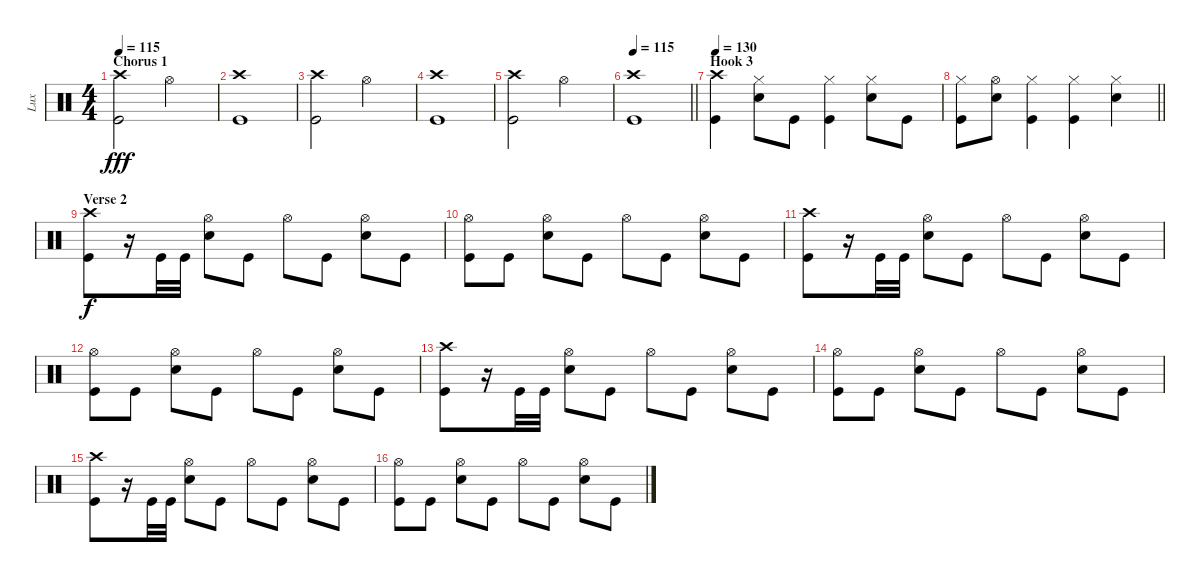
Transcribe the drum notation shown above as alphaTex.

\track ("Lux" "Lux") {instrument percussion}
\staff {score}
\articulation defaults
\ts (4 4)
\section ("" "Chorus 1")
\tempo 115
\clef neutral
\ks c
("Crash high (hit)" "Kick (hit)").2{dy fff} "Hi-Hat (open)".2 |
("Crash high (hit)" "Kick (hit)").1 |
("Crash high (hit)" "Kick (hit)").2 "Hi-Hat (open)".2 |
("Crash high (hit)" "Kick (hit)").1 |
("Crash high (hit)" "Kick (hit)").2 "Hi-Hat (open)".2 |
\tempo 130
\tempo 115
\barLineRight lightlight
("Crash high (hit)" "Kick (hit)").1 |
\section ("" "Hook 3")
\tempo 130
("Crash high (hit)" "Kick (hit)").4 ("Hi-Hat (closed)" "Snare (hit) 2").8 "Kick (hit)".8 ("Hi-Hat (closed)" "Kick (hit)").4 ("Hi-Hat (closed)" "Snare (hit) 2").8 "Kick (hit)".8 |
\barLineRight lightlight
("Hi-Hat (closed)" "Kick (hit)").8 ("Hi-Hat (open)" "Snare (hit) 2").8 ("Hi-Hat (closed)" "Kick (hit)").4 ("Hi-Hat (closed)" "Kick (hit)").4 ("Hi-Hat (closed)" "Snare (hit) 2").4 |
\section ("" "Verse 2")
("Crash high (hit)" "Kick (hit)").8{dy f} r.16 "Kick (hit)".32 "Kick (hit)".32 ("Hi-Hat (open)" "Snare (hit) 2").8 "Kick (hit)".8 "Hi-Hat (open)".8 "Kick (hit)".8 ("Hi-Hat (open)" "Snare (hit) 2").8 "Kick (hit)".8 |
("Hi-Hat (open)" "Kick (hit)").8 "Kick (hit)".8 ("Hi-Hat (open)" "Snare (hit) 2").8 "Kick (hit)".8 "Hi-Hat (open)".8 "Kick (hit)".8 ("Hi-Hat (open)" "Snare (hit) 2").8 "Kick (hit)".8 |
("Crash high (hit)" "Kick (hit)").8 r.16 "Kick (hit)".32 "Kick (hit)".32 ("Hi-Hat (open)" "Snare (hit) 2").8 "Kick (hit)".8 "Hi-Hat (open)".8 "Kick (hit)".8 ("Hi-Hat (open)" "Snare (hit) 2").8 "Kick (hit)".8 |
("Hi-Hat (open)" "Kick (hit)").8 "Kick (hit)".8 ("Hi-Hat (open)" "Snare (hit) 2").8 "Kick (hit)".8 "Hi-Hat (open)".8 "Kick (hit)".8 ("Hi-Hat (open)" "Snare (hit) 2").8 "Kick (hit)".8 |
("Crash high (hit)" "Kick (hit)").8 r.16 "Kick (hit)".32 "Kick (hit)".32 ("Hi-Hat (open)" "Snare (hit) 2").8 "Kick (hit)".8 "Hi-Hat (open)".8 "Kick (hit)".8 ("Hi-Hat (open)" "Snare (hit) 2").8 "Kick (hit)".8 |
("Hi-Hat (open)" "Kick (hit)").8 "Kick (hit)".8 ("Hi-Hat (open)" "Snare (hit) 2").8 "Kick (hit)".8 "Hi-Hat (open)".8 "Kick (hit)".8 ("Hi-Hat (open)" "Snare (hit) 2").8 "Kick (hit)".8 |
("Crash high (hit)" "Kick (hit)").8 r.16 "Kick (hit)".32 "Kick (hit)".32 ("Hi-Hat (open)" "Snare (hit) 2").8 "Kick (hit)".8 "Hi-Hat (open)".8 "Kick (hit)".8 ("Hi-Hat (open)" "Snare (hit) 2").8 "Kick (hit)".8 |
("Hi-Hat (open)" "Kick (hit)").8 "Kick (hit)".8 ("Hi-Hat (open)" "Snare (hit) 2").8 "Kick (hit)".8 "Hi-Hat (open)".8 "Kick (hit)".8 ("Hi-Hat (open)" "Snare (hit) 2").8 "Kick (hit)".8
